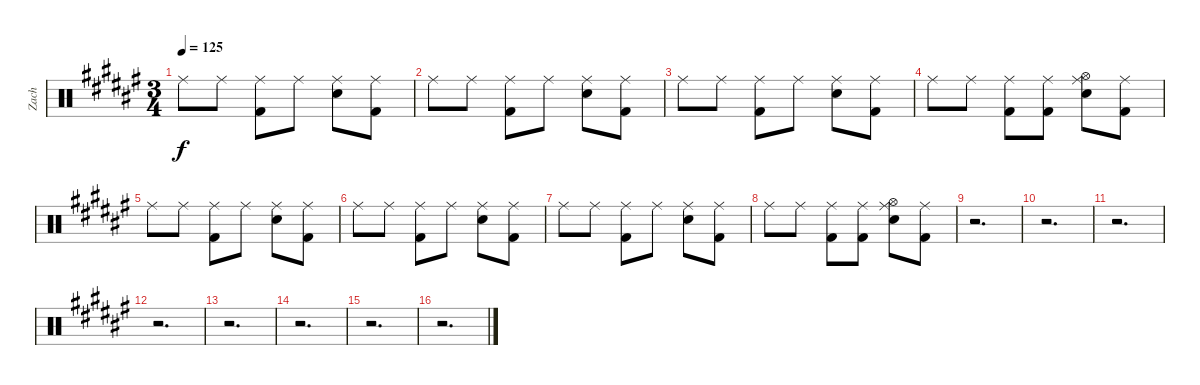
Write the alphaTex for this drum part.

\track ("Zach" "Zach") {instrument percussion}
\staff {score}
\articulation defaults
\ts (3 4)
\tempo 125
\clef neutral
\ks f# "Ride (middle)".8{dy f} "Ride (middle)".8
("Ride (middle)" "Kick (hit) 2").8 "Ride (middle)".8 ("Ride (middle)" "Snare (hit) 2").8 ("Ride (middle)" "Kick (hit) 2").8 |
"Ride (middle)".8 "Ride (middle)".8 ("Ride (middle)" "Kick (hit) 2").8 "Ride (middle)".8 ("Ride (middle)" "Snare (hit) 2").8 ("Ride (middle)" "Kick (hit) 2").8 |
"Ride (middle)".8 "Ride (middle)".8 ("Ride (middle)" "Kick (hit) 2").8 "Ride (middle)".8 ("Ride (middle)" "Snare (hit) 2").8 ("Ride (middle)" "Kick (hit) 2").8 |
"Ride (middle)".8 "Ride (middle)".8 ("Ride (middle)" "Kick (hit) 2").8 ("Ride (middle)" "Kick (hit) 2").8 ("Hi-Hat (open)" "Ride (middle)" "Snare (hit) 2").8 ("Ride (middle)" "Kick (hit) 2").8 |
"Ride (middle)".8 "Ride (middle)".8 ("Ride (middle)" "Kick (hit) 2").8 "Ride (middle)".8 ("Ride (middle)" "Snare (hit) 2").8 ("Ride (middle)" "Kick (hit) 2").8 |
"Ride (middle)".8 "Ride (middle)".8 ("Ride (middle)" "Kick (hit) 2").8 "Ride (middle)".8 ("Ride (middle)" "Snare (hit) 2").8 ("Ride (middle)" "Kick (hit) 2").8 |
"Ride (middle)".8 "Ride (middle)".8 ("Ride (middle)" "Kick (hit) 2").8 "Ride (middle)".8 ("Ride (middle)" "Snare (hit) 2").8 ("Ride (middle)" "Kick (hit) 2").8 |
"Ride (middle)".8 "Ride (middle)".8 ("Ride (middle)" "Kick (hit) 2").8 ("Ride (middle)" "Kick (hit) 2").8 ("Hi-Hat (open)" "Ride (middle)" "Snare (hit) 2").8 ("Ride (middle)" "Kick (hit) 2").8 |
r.2{d} |
r.2{d} |
r.2{d} |
r.2{d} |
r.2{d} |
r.2{d} |
r.2{d} |
r.2{d}
